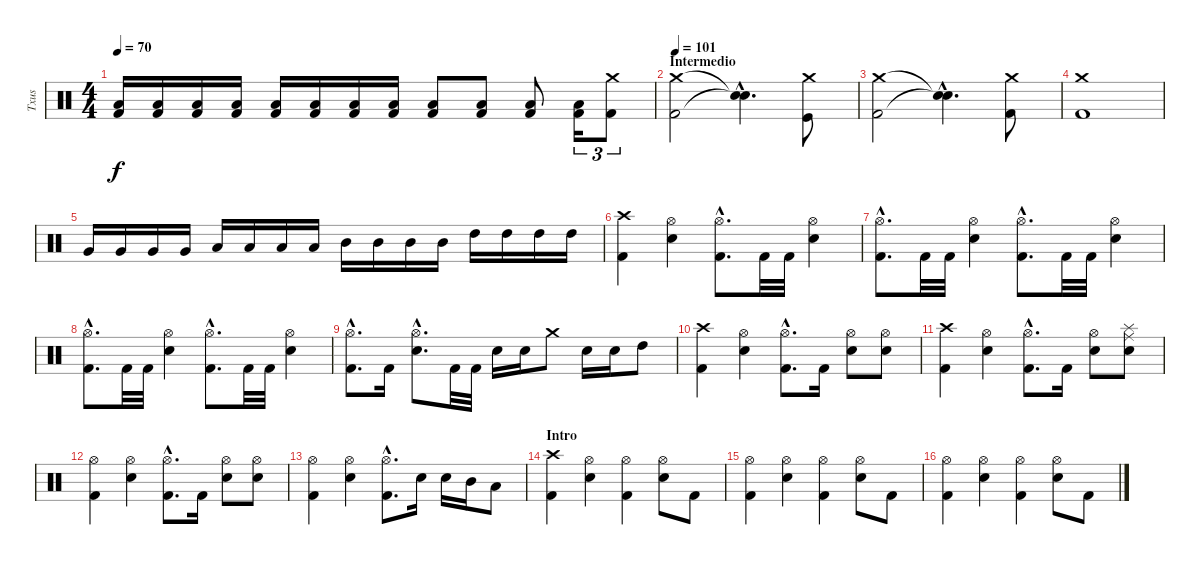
\track ("Txus" "Txus") {instrument percussion}
\staff {score}
\articulation defaults
\ts (4 4)
\tempo 70
\clef neutral
\ks c
("Kick (hit) 2" "Low Tom (hit)").16{dy f} ("Kick (hit) 2" "Low Tom (hit)").16 ("Kick (hit) 2" "Low Tom (hit)").16 ("Kick (hit) 2" "Low Tom (hit)").16 ("Kick (hit) 2" "Low Tom (hit)").16 ("Kick (hit) 2" "Low Tom (hit)").16 ("Kick (hit) 2" "Low Tom (hit)").16 ("Kick (hit) 2" "Low Tom (hit)").16 ("Kick (hit) 2" "Low Tom (hit)").8 ("Kick (hit) 2" "Low Tom (hit)").8 ("Kick (hit) 2" "Low Tom (hit)").8 ("Kick (hit) 2" "Low Tom (hit)").16{tu (3 2)} ("Kick (hit) 2" "Crash medium (hit)").8{tu (3 2)} |
\section ("" "Intermedio")
\tempo 101
("Kick (hit) 2" "Crash medium (hit)").2 ("Snare (hit)"{hac t} "Snare (hit)"{hac t}).4{d} ("Kick (hit)" "Crash medium (hit)").8 |
("Kick (hit) 2" "Crash medium (hit)").2 ("Snare (hit)"{hac t} "Snare (hit)"{hac t}).4{d} ("Kick (hit) 2" "Crash medium (hit)").8 |
("Kick (hit) 2" "Crash medium (hit)").1 |
"Very Low Tom (hit)".16 "Very Low Tom (hit)".16 "Very Low Tom (hit)".16 "Very Low Tom (hit)".16 "Low Tom (hit)".16 "Low Tom (hit)".16 "Low Tom (hit)".16 "Low Tom (hit)".16 "Mid Tom (hit)".16 "Mid Tom (hit)".16 "Mid Tom (hit)".16 "Mid Tom (hit)".16 "High Tom (hit)".16 "High Tom (hit)".16 "High Tom (hit)".16 "High Tom (hit)".16 |
("Kick (hit) 2" "Crash high (hit)").4 ("Electric Snare (hit)" "Hi-Hat (open)").4 ("Kick (hit) 2"{hac} "Hi-Hat (open)"{hac}).8{d} "Kick (hit) 2".32 "Kick (hit) 2".32 ("Electric Snare (hit)" "Hi-Hat (open)").4 |
("Kick (hit) 2"{hac} "Hi-Hat (open)"{hac}).8{d} "Kick (hit) 2".32 "Kick (hit) 2".32 ("Electric Snare (hit)" "Hi-Hat (open)").4 ("Kick (hit) 2"{hac} "Hi-Hat (open)"{hac}).8{d} "Kick (hit) 2".32 "Kick (hit) 2".32 ("Electric Snare (hit)" "Hi-Hat (open)").4 |
("Kick (hit) 2"{hac} "Hi-Hat (open)"{hac}).8{d} "Kick (hit) 2".32 "Kick (hit) 2".32 ("Electric Snare (hit)" "Hi-Hat (open)").4 ("Kick (hit) 2"{hac} "Hi-Hat (open)"{hac}).8{d} "Kick (hit) 2".32 "Kick (hit) 2".32 ("Electric Snare (hit)" "Hi-Hat (open)").4 |
("Kick (hit) 2"{hac} "Hi-Hat (open)"{hac}).8{d} "Kick (hit) 2".16 ("Electric Snare (hit)"{hac} "Hi-Hat (open)"{hac}).8{d} "Kick (hit) 2".32 "Kick (hit) 2".32 "Electric Snare (hit)".16 "Electric Snare (hit)".16 "Crash medium (hit)".8 "Electric Snare (hit)".16 "Electric Snare (hit)".16 "High Tom (hit)".8 |
("Kick (hit) 2" "Crash high (hit)").4 ("Electric Snare (hit)" "Hi-Hat (open)").4 ("Kick (hit) 2"{hac} "Hi-Hat (open)"{hac}).8{d} "Kick (hit) 2".16 ("Electric Snare (hit)" "Hi-Hat (open)").8 ("Electric Snare (hit)" "Hi-Hat (open)").8 |
("Kick (hit) 2" "Crash high (hit)").4 ("Electric Snare (hit)" "Hi-Hat (open)").4 ("Kick (hit) 2"{hac} "Hi-Hat (open)"{hac}).8{d} "Kick (hit) 2".16 ("Electric Snare (hit)" "Hi-Hat (open)").8 ("Electric Snare (hit)" "Splash (hit)" "Ride (middle)").8 |
("Kick (hit) 2" "Hi-Hat (open)").4 ("Electric Snare (hit)" "Hi-Hat (open)").4 ("Kick (hit) 2"{hac} "Hi-Hat (open)"{hac}).8{d} "Kick (hit) 2".16 ("Electric Snare (hit)" "Hi-Hat (open)").8 ("Electric Snare (hit)" "Hi-Hat (open)").8 |
("Kick (hit) 2" "Hi-Hat (open)").4 ("Electric Snare (hit)" "Hi-Hat (open)").4 ("Kick (hit) 2"{hac} "Hi-Hat (open)"{hac}).8{d} "Electric Snare (hit)".16 "Electric Snare (hit)".16 "Mid Tom (hit)".16 "Low Tom (hit)".8 |
\section ("" "Intro")
("Kick (hit) 2" "Crash high (hit)").4 ("Electric Snare (hit)" "Hi-Hat (open)").4 ("Kick (hit) 2" "Hi-Hat (open)").4 ("Electric Snare (hit)" "Hi-Hat (open)").8 "Kick (hit) 2".8 |
("Kick (hit) 2" "Hi-Hat (open)").4 ("Electric Snare (hit)" "Hi-Hat (open)").4 ("Kick (hit) 2" "Hi-Hat (open)").4 ("Electric Snare (hit)" "Hi-Hat (open)").8 "Kick (hit) 2".8 |
("Kick (hit) 2" "Hi-Hat (open)").4 ("Electric Snare (hit)" "Hi-Hat (open)").4 ("Kick (hit) 2" "Hi-Hat (open)").4 ("Electric Snare (hit)" "Hi-Hat (open)").8 "Kick (hit) 2".8
